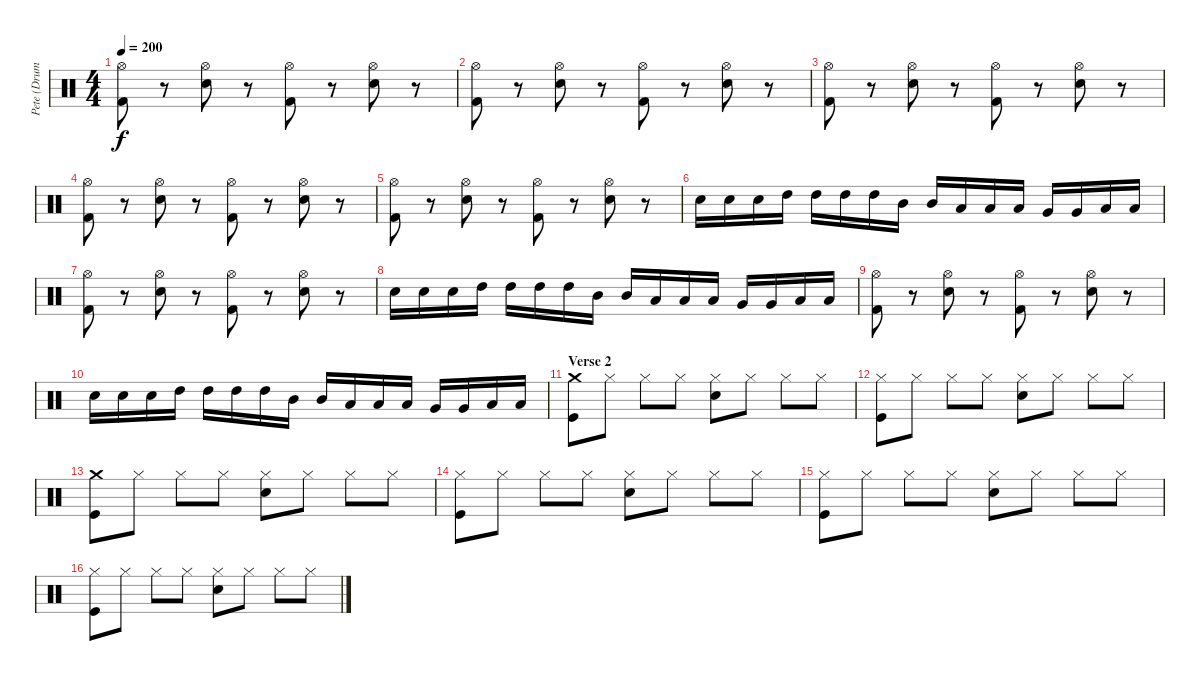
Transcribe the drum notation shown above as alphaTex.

\track ("Pete (Drums)" "Pete (Drum") {instrument percussion}
\staff {score}
\articulation defaults
\ts (4 4)
\tempo 200
\clef neutral
\ks c
("Hi-Hat (open)" "Kick (hit) 2").8{dy f} r.8 ("Hi-Hat (open)" "Snare (hit) 2").8 r.8 ("Hi-Hat (open)" "Kick (hit) 2").8 r.8 ("Hi-Hat (open)" "Snare (hit) 2").8 r.8 |
("Hi-Hat (open)" "Kick (hit) 2").8 r.8 ("Hi-Hat (open)" "Snare (hit) 2").8 r.8 ("Hi-Hat (open)" "Kick (hit) 2").8 r.8 ("Hi-Hat (open)" "Snare (hit) 2").8 r.8 |
("Hi-Hat (open)" "Kick (hit) 2").8 r.8 ("Hi-Hat (open)" "Snare (hit) 2").8 r.8 ("Hi-Hat (open)" "Kick (hit) 2").8 r.8 ("Hi-Hat (open)" "Snare (hit) 2").8 r.8 |
("Hi-Hat (open)" "Kick (hit) 2").8 r.8 ("Hi-Hat (open)" "Snare (hit) 2").8 r.8 ("Hi-Hat (open)" "Kick (hit) 2").8 r.8 ("Hi-Hat (open)" "Snare (hit) 2").8 r.8 |
("Hi-Hat (open)" "Kick (hit) 2").8 r.8 ("Hi-Hat (open)" "Snare (hit) 2").8 r.8 ("Hi-Hat (open)" "Kick (hit) 2").8 r.8 ("Hi-Hat (open)" "Snare (hit) 2").8 r.8 |
"Snare (hit) 2".16 "Snare (hit) 2".16 "Snare (hit) 2".16 "High Tom (hit)".16 "High Tom (hit)".16 "High Tom (hit)".16 "High Tom (hit)".16 "Mid Tom (hit)".16 "Mid Tom (hit)".16 "Low Tom (hit)".16 "Low Tom (hit)".16 "Low Tom (hit)".16 "Very Low Tom (hit)".16 "Very Low Tom (hit)".16 "Low Floor Tom (hit)".16 "Low Floor Tom (hit)".16 |
("Hi-Hat (open)" "Kick (hit) 2").8 r.8 ("Hi-Hat (open)" "Snare (hit) 2").8 r.8 ("Hi-Hat (open)" "Kick (hit) 2").8 r.8 ("Hi-Hat (open)" "Snare (hit) 2").8 r.8 |
"Snare (hit) 2".16 "Snare (hit) 2".16 "Snare (hit) 2".16 "High Tom (hit)".16 "High Tom (hit)".16 "High Tom (hit)".16 "High Tom (hit)".16 "Mid Tom (hit)".16 "Mid Tom (hit)".16 "Low Tom (hit)".16 "Low Tom (hit)".16 "Low Tom (hit)".16 "Very Low Tom (hit)".16 "Very Low Tom (hit)".16 "Low Floor Tom (hit)".16 "Low Floor Tom (hit)".16 |
("Hi-Hat (open)" "Kick (hit) 2").8 r.8 ("Hi-Hat (open)" "Snare (hit) 2").8 r.8 ("Hi-Hat (open)" "Kick (hit) 2").8 r.8 ("Hi-Hat (open)" "Snare (hit) 2").8 r.8 |
"Snare (hit) 2".16 "Snare (hit) 2".16 "Snare (hit) 2".16 "High Tom (hit)".16 "High Tom (hit)".16 "High Tom (hit)".16 "High Tom (hit)".16 "Mid Tom (hit)".16 "Mid Tom (hit)".16 "Low Tom (hit)".16 "Low Tom (hit)".16 "Low Tom (hit)".16 "Very Low Tom (hit)".16 "Very Low Tom (hit)".16 "Low Floor Tom (hit)".16 "Low Floor Tom (hit)".16 |
\section ("" "Verse 2")
("Crash medium (hit)" "Kick (hit)").8 "Hi-Hat (closed)".8 "Hi-Hat (closed)".8 "Hi-Hat (closed)".8 ("Hi-Hat (closed)" "Snare (hit) 2").8 "Hi-Hat (closed)".8 "Hi-Hat (closed)".8 "Hi-Hat (closed)".8 |
("Hi-Hat (closed)" "Kick (hit)").8 "Hi-Hat (closed)".8 "Hi-Hat (closed)".8 "Hi-Hat (closed)".8 ("Hi-Hat (closed)" "Snare (hit) 2").8 "Hi-Hat (closed)".8 "Hi-Hat (closed)".8 "Hi-Hat (closed)".8 |
("Crash medium (hit)" "Kick (hit)").8 "Hi-Hat (closed)".8 "Hi-Hat (closed)".8 "Hi-Hat (closed)".8 ("Hi-Hat (closed)" "Snare (hit) 2").8 "Hi-Hat (closed)".8 "Hi-Hat (closed)".8 "Hi-Hat (closed)".8 |
("Hi-Hat (closed)" "Kick (hit)").8 "Hi-Hat (closed)".8 "Hi-Hat (closed)".8 "Hi-Hat (closed)".8 ("Hi-Hat (closed)" "Snare (hit) 2").8 "Hi-Hat (closed)".8 "Hi-Hat (closed)".8 "Hi-Hat (closed)".8 |
("Hi-Hat (closed)" "Kick (hit)").8 "Hi-Hat (closed)".8 "Hi-Hat (closed)".8 "Hi-Hat (closed)".8 ("Hi-Hat (closed)" "Snare (hit) 2").8 "Hi-Hat (closed)".8 "Hi-Hat (closed)".8 "Hi-Hat (closed)".8 |
("Hi-Hat (closed)" "Kick (hit)").8 "Hi-Hat (closed)".8 "Hi-Hat (closed)".8 "Hi-Hat (closed)".8 ("Hi-Hat (closed)" "Snare (hit) 2").8 "Hi-Hat (closed)".8 "Hi-Hat (closed)".8 "Hi-Hat (closed)".8
